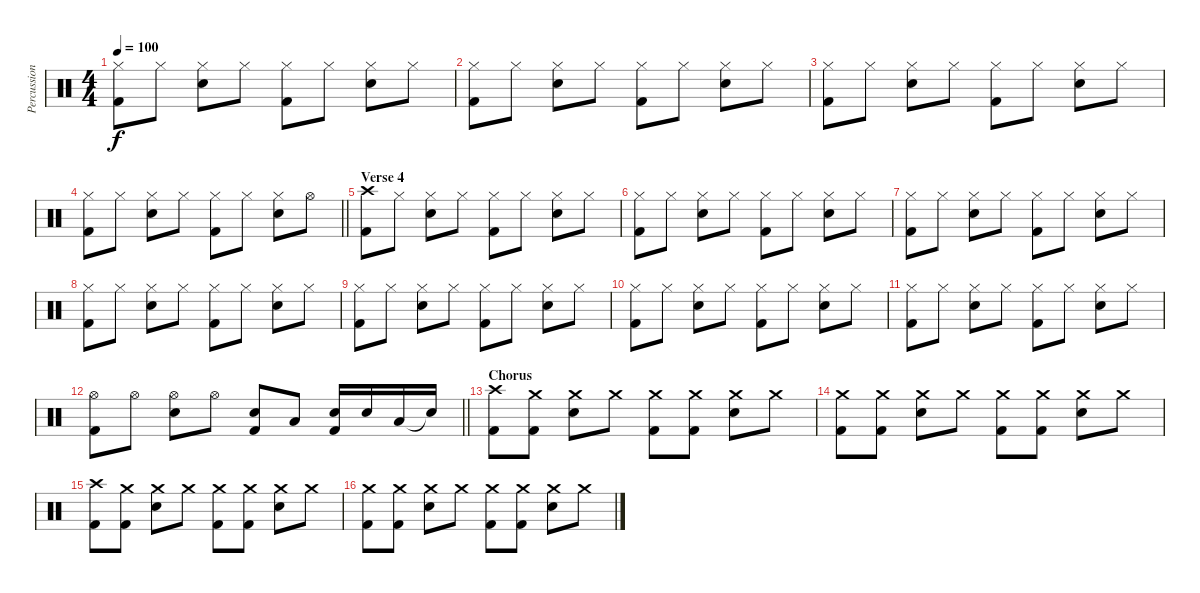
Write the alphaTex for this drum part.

\track ("Percussion" "Percussion") {instrument percussion}
\staff {score}
\articulation defaults
\ts (4 4)
\tempo 100
\clef neutral
\ks c
("Hi-Hat (closed)" "Kick (hit) 2").8{dy f} "Hi-Hat (closed)".8 ("Hi-Hat (closed)" "Snare (hit) 2").8 "Hi-Hat (closed)".8 ("Hi-Hat (closed)" "Kick (hit) 2").8 "Hi-Hat (closed)".8 ("Hi-Hat (closed)" "Snare (hit) 2").8 "Hi-Hat (closed)".8 |
("Hi-Hat (closed)" "Kick (hit) 2").8 "Hi-Hat (closed)".8 ("Hi-Hat (closed)" "Snare (hit) 2").8 "Hi-Hat (closed)".8 ("Hi-Hat (closed)" "Kick (hit) 2").8 "Hi-Hat (closed)".8 ("Hi-Hat (closed)" "Snare (hit) 2").8 "Hi-Hat (closed)".8 |
("Hi-Hat (closed)" "Kick (hit) 2").8 "Hi-Hat (closed)".8 ("Hi-Hat (closed)" "Snare (hit) 2").8 "Hi-Hat (closed)".8 ("Hi-Hat (closed)" "Kick (hit) 2").8 "Hi-Hat (closed)".8 ("Hi-Hat (closed)" "Snare (hit) 2").8 "Hi-Hat (closed)".8 |
\barLineRight lightlight
("Hi-Hat (closed)" "Kick (hit) 2").8 "Hi-Hat (closed)".8 ("Hi-Hat (closed)" "Snare (hit) 2").8 "Hi-Hat (closed)".8 ("Hi-Hat (closed)" "Kick (hit) 2").8 "Hi-Hat (closed)".8 ("Hi-Hat (closed)" "Snare (hit) 2").8 "Hi-Hat (open)".8 |
\section ("" "Verse 4")
("Crash high (hit)" "Kick (hit) 2").8 "Hi-Hat (closed)".8 ("Hi-Hat (closed)" "Snare (hit) 2").8 "Hi-Hat (closed)".8 ("Hi-Hat (closed)" "Kick (hit) 2").8 "Hi-Hat (closed)".8 ("Hi-Hat (closed)" "Snare (hit) 2").8 "Hi-Hat (closed)".8 |
("Hi-Hat (closed)" "Kick (hit) 2").8 "Hi-Hat (closed)".8 ("Hi-Hat (closed)" "Snare (hit) 2").8 "Hi-Hat (closed)".8 ("Hi-Hat (closed)" "Kick (hit) 2").8 "Hi-Hat (closed)".8 ("Hi-Hat (closed)" "Snare (hit) 2").8 "Hi-Hat (closed)".8 |
("Hi-Hat (closed)" "Kick (hit) 2").8 "Hi-Hat (closed)".8 ("Hi-Hat (closed)" "Snare (hit) 2").8 "Hi-Hat (closed)".8 ("Hi-Hat (closed)" "Kick (hit) 2").8 "Hi-Hat (closed)".8 ("Hi-Hat (closed)" "Snare (hit) 2").8 "Hi-Hat (closed)".8 |
("Hi-Hat (closed)" "Kick (hit) 2").8 "Hi-Hat (closed)".8 ("Hi-Hat (closed)" "Snare (hit) 2").8 "Hi-Hat (closed)".8 ("Hi-Hat (closed)" "Kick (hit) 2").8 "Hi-Hat (closed)".8 ("Hi-Hat (closed)" "Snare (hit) 2").8 "Hi-Hat (closed)".8 |
("Hi-Hat (closed)" "Kick (hit) 2").8 "Hi-Hat (closed)".8 ("Hi-Hat (closed)" "Snare (hit) 2").8 "Hi-Hat (closed)".8 ("Hi-Hat (closed)" "Kick (hit) 2").8 "Hi-Hat (closed)".8 ("Hi-Hat (closed)" "Snare (hit) 2").8 "Hi-Hat (closed)".8 |
("Hi-Hat (closed)" "Kick (hit) 2").8 "Hi-Hat (closed)".8 ("Hi-Hat (closed)" "Snare (hit) 2").8 "Hi-Hat (closed)".8 ("Hi-Hat (closed)" "Kick (hit) 2").8 "Hi-Hat (closed)".8 ("Hi-Hat (closed)" "Snare (hit) 2").8 "Hi-Hat (closed)".8 |
("Hi-Hat (closed)" "Kick (hit) 2").8 "Hi-Hat (closed)".8 ("Hi-Hat (closed)" "Snare (hit) 2").8 "Hi-Hat (closed)".8 ("Hi-Hat (closed)" "Kick (hit) 2").8 "Hi-Hat (closed)".8 ("Hi-Hat (closed)" "Snare (hit) 2").8 "Hi-Hat (closed)".8 |
\barLineRight lightlight
("Hi-Hat (open)" "Kick (hit) 2").8 "Hi-Hat (open)".8 ("Hi-Hat (open)" "Snare (hit) 2").8 "Hi-Hat (open)".8 ("Kick (hit) 2" "Snare (hit) 2").8 "Low Tom (hit)".8 ("Kick (hit) 2" "Snare (hit) 2").16 "Snare (hit) 2".16 "Low Tom (hit)".16 "Snare (hit) 2"{t}.16 |
\section ("" "Chorus")
("Kick (hit) 2" "Crash high (hit)").8 ("Kick (hit) 2" "Crash medium (hit)").8 ("Snare (hit) 2" "Crash medium (hit)").8 "Crash medium (hit)".8 ("Kick (hit) 2" "Crash medium (hit)").8 ("Kick (hit) 2" "Crash medium (hit)").8 ("Snare (hit) 2" "Crash medium (hit)").8 "Crash medium (hit)".8 |
("Kick (hit) 2" "Crash medium (hit)").8 ("Kick (hit) 2" "Crash medium (hit)").8 ("Snare (hit) 2" "Crash medium (hit)").8 "Crash medium (hit)".8 ("Kick (hit) 2" "Crash medium (hit)").8 ("Kick (hit) 2" "Crash medium (hit)").8 ("Snare (hit) 2" "Crash medium (hit)").8 "Crash medium (hit)".8 |
("Kick (hit) 2" "Crash high (hit)").8 ("Kick (hit) 2" "Crash medium (hit)").8 ("Snare (hit) 2" "Crash medium (hit)").8 "Crash medium (hit)".8 ("Kick (hit) 2" "Crash medium (hit)").8 ("Kick (hit) 2" "Crash medium (hit)").8 ("Snare (hit) 2" "Crash medium (hit)").8 "Crash medium (hit)".8 |
("Kick (hit) 2" "Crash medium (hit)").8 ("Kick (hit) 2" "Crash medium (hit)").8 ("Snare (hit) 2" "Crash medium (hit)").8 "Crash medium (hit)".8 ("Kick (hit) 2" "Crash medium (hit)").8 ("Kick (hit) 2" "Crash medium (hit)").8 ("Snare (hit) 2" "Crash medium (hit)").8 "Crash medium (hit)".8
